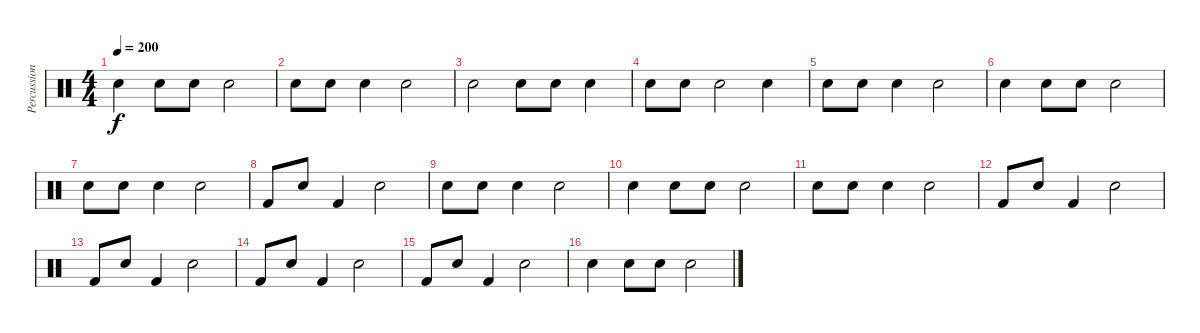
\track ("Percussion" "Percussion") {instrument percussion}
\staff {score}
\articulation defaults
\ts (4 4)
\tempo 200
\clef neutral
\ks c "Electric Snare (hit)".4{dy f} "Electric Snare (hit)".8 "Electric Snare (hit)".8 "Hand Clap (hit)".2
|
"Electric Snare (hit)".8 "Electric Snare (hit)".8 "Electric Snare (hit)".4 "Hand Clap (hit)".2 |
"Electric Snare (hit)".2 "Electric Snare (hit)".8 "Electric Snare (hit)".8 "Hand Clap (hit)".4 |
"Electric Snare (hit)".8 "Electric Snare (hit)".8 "Electric Snare (hit)".2 "Hand Clap (hit)".4 |
"Electric Snare (hit)".8 "Electric Snare (hit)".8 "Electric Snare (hit)".4 "Hand Clap (hit)".2 |
"Electric Snare (hit)".4 "Electric Snare (hit)".8 "Electric Snare (hit)".8 "Hand Clap (hit)".2 |
"Electric Snare (hit)".8 "Electric Snare (hit)".8 "Electric Snare (hit)".4 "Hand Clap (hit)".2 |
"Kick (hit) 2".8 "Snare (hit) 2".8 "Kick (hit) 2".4 "Snare (hit) 2".2 |
"Electric Snare (hit)".8 "Electric Snare (hit)".8 "Electric Snare (hit)".4 "Hand Clap (hit)".2 |
"Electric Snare (hit)".4 "Electric Snare (hit)".8 "Electric Snare (hit)".8 "Hand Clap (hit)".2 |
"Electric Snare (hit)".8 "Electric Snare (hit)".8 "Electric Snare (hit)".4 "Hand Clap (hit)".2 |
"Kick (hit) 2".8 "Snare (hit) 2".8 "Kick (hit) 2".4 "Snare (hit) 2".2 |
"Kick (hit) 2".8 "Snare (hit) 2".8 "Kick (hit) 2".4 "Snare (hit) 2".2 |
"Kick (hit) 2".8 "Snare (hit) 2".8 "Kick (hit) 2".4 "Snare (hit) 2".2 |
"Kick (hit) 2".8 "Snare (hit) 2".8 "Kick (hit) 2".4 "Snare (hit) 2".2 |
"Electric Snare (hit)".4 "Electric Snare (hit)".8 "Electric Snare (hit)".8 "Hand Clap (hit)".2
